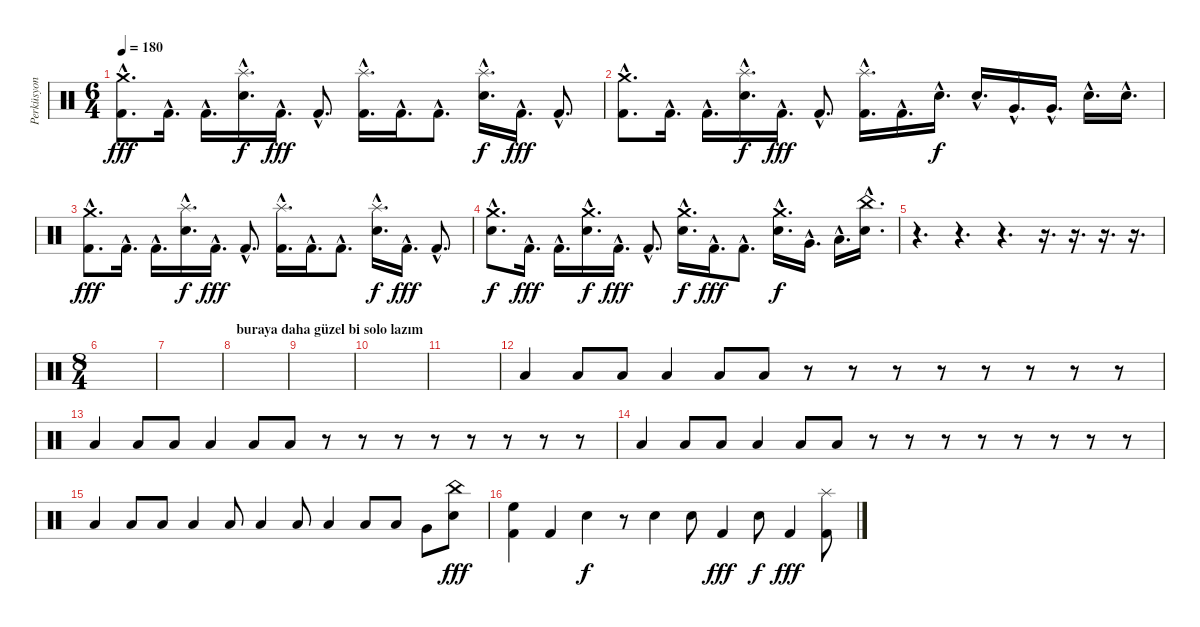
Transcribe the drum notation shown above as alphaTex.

\track ("Perküsyon" "Perküsyon") {instrument percussion}
\staff {score}
\articulation defaults
\ts (6 4)
\tempo 180
\clef neutral
\ks c
("Crash medium (hit)"{hac} "Kick (hit) 2"{hac}).8{d dy fff} "Kick (hit) 2"{hac}.16{d} "Kick (hit) 2"{hac}.16{d} ("Splash (hit)"{hac} "Electric Snare (hit)"{hac}).16{d dy f} "Kick (hit) 2"{hac}.16{d dy fff} "Kick (hit) 2"{hac}.8{d} ("Splash (hit)"{hac} "Kick (hit) 2"{hac}).16{d} "Kick (hit) 2"{hac}.16{d} "Kick (hit) 2"{hac}.8{d} ("Splash (hit)"{hac} "Electric Snare (hit)"{hac}).16{d dy f} "Kick (hit) 2"{hac}.16{d dy fff} "Kick (hit) 2"{hac}.8{d} |
("Crash medium (hit)"{hac} "Kick (hit) 2"{hac}).8{d} "Kick (hit) 2"{hac}.16{d} "Kick (hit) 2"{hac}.16{d} ("Splash (hit)"{hac} "Electric Snare (hit)"{hac}).16{d dy f} "Kick (hit) 2"{hac}.16{d dy fff} "Kick (hit) 2"{hac}.8{d} ("Splash (hit)"{hac} "Kick (hit) 2"{hac}).16{d} "Kick (hit) 2"{hac}.16{d} "Electric Snare (hit)"{hac}.16{d dy f} "Electric Snare (hit)"{hac}.16{d} "Very Low Tom (hit)"{hac}.16{d} "Very Low Tom (hit)"{hac}.16{d} "Electric Snare (hit)"{hac}.16{d} "Electric Snare (hit)"{hac}.16{d} |
("Crash medium (hit)"{hac} "Kick (hit) 2"{hac}).8{d dy fff} "Kick (hit) 2"{hac}.16{d} "Kick (hit) 2"{hac}.16{d} ("Splash (hit)"{hac} "Electric Snare (hit)"{hac}).16{d dy f} "Kick (hit) 2"{hac}.16{d dy fff} "Kick (hit) 2"{hac}.8{d} ("Splash (hit)"{hac} "Kick (hit) 2"{hac}).16{d} "Kick (hit) 2"{hac}.16{d} "Kick (hit) 2"{hac}.8{d} ("Splash (hit)"{hac} "Electric Snare (hit)"{hac}).16{d dy f} "Kick (hit) 2"{hac}.16{d dy fff} "Kick (hit) 2"{hac}.8{d} |
("Crash medium (hit)"{hac} "Electric Snare (hit)"{hac}).8{d dy f} "Kick (hit) 2"{hac}.16{d dy fff} "Kick (hit) 2"{hac}.16{d} ("Crash medium (hit)"{hac} "Electric Snare (hit)"{hac}).16{d dy f} "Kick (hit) 2"{hac}.16{d dy fff} "Kick (hit) 2"{hac}.8{d} ("Crash medium (hit)"{hac} "Electric Snare (hit)"{hac}).16{d dy f} "Kick (hit) 2"{hac}.16{d dy fff} "Kick (hit) 2"{hac}.8{d} ("Crash medium (hit)"{hac} "Electric Snare (hit)"{hac}).16{d dy f} "Very Low Tom (hit)"{hac}.16{d} "Low Floor Tom (hit)"{hac}.16{d} ("China (hit)"{hac} "Electric Snare (hit)"{hac}).16{d} |
r.4{d} r.4{d} r.4{d} r.16{d} r.16{d} r.16{d} r.16{d} |
\ts (8 4)
|
|
\section ("" "buraya daha güzel bi solo lazım")
|
|
|
|
"Low Floor Tom (hit)".4 "Low Floor Tom (hit)".8 "Low Floor Tom (hit)".8 "Low Floor Tom (hit)".4 "Low Floor Tom (hit)".8 "Low Floor Tom (hit)".8 r.8 r.8 r.8 r.8 r.8 r.8 r.8 r.8 |
"Low Floor Tom (hit)".4 "Low Floor Tom (hit)".8 "Low Floor Tom (hit)".8 "Low Floor Tom (hit)".4 "Low Floor Tom (hit)".8 "Low Floor Tom (hit)".8 r.8 r.8 r.8 r.8 r.8 r.8 r.8 r.8 |
"Low Floor Tom (hit)".4 "Low Floor Tom (hit)".8 "Low Floor Tom (hit)".8 "Low Floor Tom (hit)".4 "Low Floor Tom (hit)".8 "Low Floor Tom (hit)".8 r.8 r.8 r.8 r.8 r.8 r.8 r.8 r.8 |
"Low Floor Tom (hit)".4 "Low Floor Tom (hit)".8 "Low Floor Tom (hit)".8 "Low Floor Tom (hit)".4 "Low Floor Tom (hit)".8 "Low Floor Tom (hit)".4 "Low Floor Tom (hit)".8 "Low Floor Tom (hit)".4 "Low Floor Tom (hit)".8 "Low Tom (hit)".8 "Very Low Tom (hit)".8 ("China (hit)" "Electric Snare (hit)").8{dy fff} |
("High Floor Tom (hit)" "Kick (hit) 2").4 "Kick (hit) 2".4 "Electric Snare (hit)".4{dy f} r.8 "Electric Snare (hit)".4 "Electric Snare (hit)".8 "Kick (hit) 2".4{dy fff} "Electric Snare (hit)".8{dy f} "Kick (hit) 2".4{dy fff} ("Splash (hit)" "Kick (hit) 2").8
